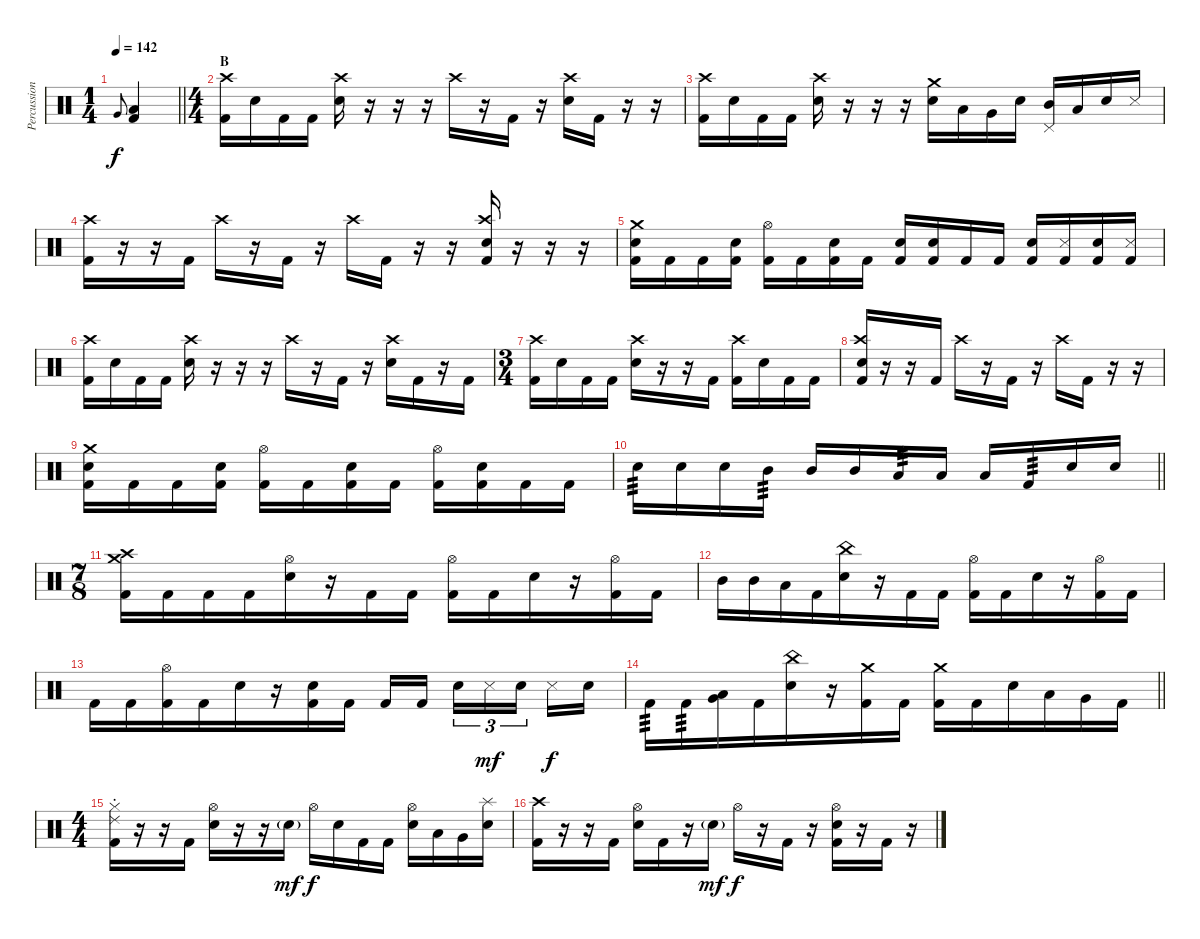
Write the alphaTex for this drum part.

\track ("Percussion" "Percussion") {instrument percussion}
\staff {score}
\articulation defaults
\ts (1 4)
\tempo 142
\clef neutral
\barLineRight lightlight
\ks c "Very Low Tom (hit)".8{gr onbeat dy f}
("Low Floor Tom (hit)" "Kick (hit) 2").4 |
\ts (4 4)
\section ("" "B")
("Crash high (hit)" "Kick (hit) 2").16 "Snare (hit) 2".16 "Kick (hit) 2".16 "Kick (hit) 2".16 ("Crash high (hit)" "Snare (hit) 2").16 r.16 r.16 r.16 "Crash high (hit)".16 r.16 "Kick (hit) 2".16 r.16 ("Crash high (hit)" "Snare (hit) 2").16 "Kick (hit) 2".16 r.16 r.16 |
("Crash high (hit)" "Kick (hit) 2").16 "Snare (hit) 2".16 "Kick (hit) 2".16 "Kick (hit) 2".16 ("Crash high (hit)" "Snare (hit) 2").16 r.16 r.16 r.16 ("Crash medium (hit)" "Snare (hit) 2").16 "Low Tom (hit)".16 "Very Low Tom (hit)".16 "Snare (hit) 2".16 ("Pedal Hi-Hat (hit)" "Mid Tom (hit)").16 "Low Tom (hit)".16 "Snare (hit) 2".16 "Metronome (hit)".16 |
("Crash high (hit)" "Kick (hit) 2").16 r.16 r.16 "Kick (hit) 2".16 "Crash high (hit)".16 r.16 "Kick (hit) 2".16 r.16 "Crash high (hit)".16 "Kick (hit) 2".16 r.16 r.16 ("Crash high (hit)" "Snare (hit) 2" "Kick (hit) 2").16 r.16 r.16 r.16 |
("Crash medium (hit)" "Snare (hit) 2" "Kick (hit) 2").16 "Kick (hit) 2".16 "Kick (hit) 2".16 ("Snare (hit) 2" "Kick (hit) 2").16 ("Hi-Hat (open)" "Kick (hit) 2").16 "Kick (hit) 2".16 ("Snare (hit) 2" "Kick (hit) 2").16 "Kick (hit) 2".16 ("Snare (hit)" "Kick (hit) 2").16 ("Snare (hit) 2" "Kick (hit) 2").16 "Kick (hit) 2".16 "Kick (hit) 2".16 ("Snare (hit) 2" "Kick (hit) 2").16 ("Metronome (hit)" "Kick (hit) 2").16 ("Snare (hit) 2" "Kick (hit) 2").16 ("Metronome (hit)" "Kick (hit) 2").16 |
("Crash high (hit)" "Kick (hit) 2").16 "Snare (hit) 2".16 "Kick (hit) 2".16 "Kick (hit) 2".16 ("Crash high (hit)" "Snare (hit) 2").16 r.16 r.16 r.16 "Crash high (hit)".16 r.16 "Kick (hit) 2".16 r.16 ("Crash high (hit)" "Snare (hit) 2").16 "Kick (hit) 2".16 r.16 "Kick (hit) 2".16 |
\ts (3 4)
("Crash high (hit)" "Kick (hit) 2").16 "Snare (hit) 2".16 "Kick (hit) 2".16 "Kick (hit) 2".16 ("Crash high (hit)" "Snare (hit) 2").16 r.16 r.16 "Kick (hit) 2".16 ("Crash high (hit)" "Kick (hit) 2").16 "Snare (hit) 2".16 "Kick (hit) 2".16 "Kick (hit) 2".16 |
("Crash high (hit)" "Snare (hit) 2" "Kick (hit) 2").16 r.16 r.16 "Kick (hit) 2".16 "Crash high (hit)".16 r.16 "Kick (hit) 2".16 r.16 "Crash high (hit)".16 "Kick (hit) 2".16 r.16 r.16 |
("Crash medium (hit)" "Snare (hit) 2" "Kick (hit) 2").16 "Kick (hit) 2".16 "Kick (hit) 2".16 ("Snare (hit) 2" "Kick (hit) 2").16 ("Hi-Hat (open)" "Kick (hit) 2").16 "Kick (hit) 2".16 ("Snare (hit) 2" "Kick (hit) 2").16 "Kick (hit) 2".16 ("Hi-Hat (open)" "Kick (hit) 2").16 ("Snare (hit) 2" "Kick (hit) 2").16 "Kick (hit) 2".16 "Kick (hit) 2".16 |
\barLineRight lightlight "Snare (hit) 2".16{tp 3} "Snare (hit) 2".16 "Snare (hit) 2".16 "Mid Tom (hit)".16{tp 3} "Mid Tom (hit)".16 "Mid Tom (hit)".16 "Low Tom (hit)".16{tp 3} "Low Tom (hit)".16 "Low Tom (hit)".16 "Kick (hit) 2".16{tp 3} "Snare (hit) 2".16 "Snare (hit) 2".16
|
\ts (7 8)
\section ("" "")
("Crash medium (hit)" "Crash high (hit)" "Kick (hit) 2").16 "Kick (hit) 2".16 "Kick (hit) 2".16 "Kick (hit) 2".16 ("Hi-Hat (open)" "Snare (hit) 2").16 r.16 "Kick (hit) 2".16 "Kick (hit) 2".16 ("Hi-Hat (open)" "Kick (hit) 2").16 "Kick (hit) 2".16 "Snare (hit) 2".16 r.16 ("Hi-Hat (open)" "Kick (hit) 2").16 "Kick (hit) 2".16 |
"Mid Tom (hit)".16 "Mid Tom (hit)".16 "Low Tom (hit)".16 "Kick (hit) 2".16 ("China (hit)" "Snare (hit) 2").16 r.16 "Kick (hit) 2".16 "Kick (hit) 2".16 ("Hi-Hat (open)" "Kick (hit) 2").16 "Kick (hit) 2".16 "Snare (hit) 2".16 r.16 ("Hi-Hat (open)" "Kick (hit) 2").16 "Kick (hit) 2".16 |
"Kick (hit) 2".16 "Kick (hit) 2".16 ("Hi-Hat (open)" "Kick (hit) 2").16 "Kick (hit) 2".16 "Snare (hit) 2".16 r.16 ("Snare (hit)" "Kick (hit) 2").16 "Kick (hit) 2".16 "Kick (hit) 2".16 "Kick (hit) 2".16 "Snare (hit) 2".16{tu (3 2)} "Metronome (hit)".16{tu (3 2) dy mf} "Snare (hit) 2".16{tu (3 2)} "Metronome (hit)".16{dy f} "Snare (hit) 2".16 |
\barLineRight lightlight "Kick (hit) 2".16{tp 3} "Kick (hit) 2".16{tp 3}
("Low Tom (hit)" "Very Low Tom (hit)").16{bu 60} "Kick (hit) 2".16 ("China (hit)" "Snare (hit) 2").16 r.16 ("Crash medium (hit)" "Kick (hit) 2").16 "Kick (hit) 2".16 ("Crash medium (hit)" "Kick (hit) 2").16 "Kick (hit) 2".16 "Snare (hit) 2".16 "Low Tom (hit)".16 "Very Low Tom (hit)".16 "Kick (hit) 2".16 |
\ts (4 4)
\section ("" "")
("Ride (choke) 2" "Hi-Hat (closed)" "Kick (hit) 2").16 r.16 r.16 "Kick (hit) 2".16 ("Hi-Hat (open)" "Snare (hit) 2").16 r.16 r.16 "Snare (hit) 2"{g}.16{dy mf} "Hi-Hat (open)".16{dy f} "Snare (hit) 2".16 "Kick (hit) 2".16 "Kick (hit) 2".16 ("Hi-Hat (open)" "Snare (hit) 2").16 "Low Tom (hit)".16 "Very Low Tom (hit)".16 ("Splash (hit)" "Snare (hit) 2").16 |
("Crash high (hit)" "Kick (hit) 2").16 r.16 r.16 "Kick (hit) 2".16 ("Hi-Hat (open)" "Snare (hit) 2").16 "Kick (hit) 2".16 r.16 "Snare (hit) 2"{g}.16{dy mf} "Hi-Hat (open)".16{dy f} r.16 "Kick (hit) 2".16 r.16 ("Hi-Hat (open)" "Snare (hit) 2" "Kick (hit) 2").16 r.16 "Kick (hit) 2".16 r.16
